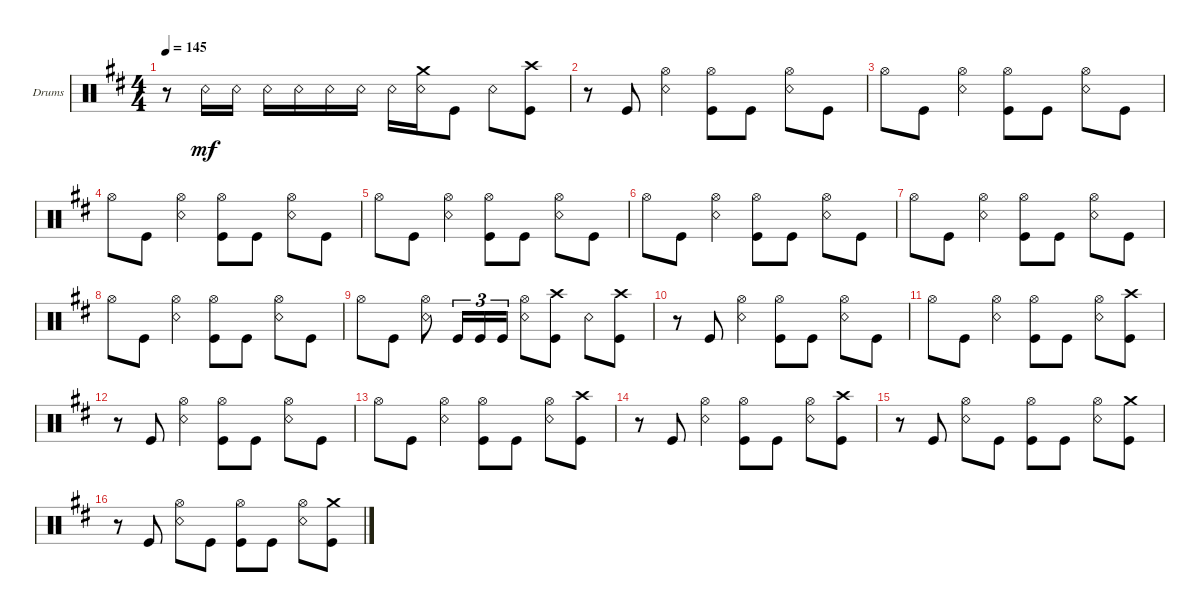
\defaultSystemsLayout 4
\bracketExtendMode groupsimilarinstruments
\firstSystemTrackNameOrientation horizontal
\otherSystemsTrackNameOrientation horizontal
\track ("Drumkit" "Drums") {instrument percussion}
\staff {score}
\articulation defaults
\ts (4 4)
\tempo 145
\clef neutral
\ks bminor
r.8{dy mf} "Snare (rim shot)".16 "Snare (rim shot)".16 "Snare (rim shot)".16 "Snare (rim shot)".16 "Snare (rim shot)".16 "Snare (rim shot)".16 "Snare (rim shot)".16 ("Snare (rim shot)" "Crash medium (hit)").16 "Kick (hit)".8 "Snare (rim shot)".8 ("Kick (hit)" "Crash high (hit)").8 |
r.8 "Kick (hit)".8 ("Snare (rim shot)" "Hi-Hat (open)").4 ("Kick (hit)" "Hi-Hat (open)").8 "Kick (hit)".8 ("Snare (rim shot)" "Hi-Hat (open)").8 "Kick (hit)".8 |
"Hi-Hat (open)".8 "Kick (hit)".8 ("Snare (rim shot)" "Hi-Hat (open)").4 ("Kick (hit)" "Hi-Hat (open)").8 "Kick (hit)".8 ("Snare (rim shot)" "Hi-Hat (open)").8 "Kick (hit)".8 |
"Hi-Hat (open)".8 "Kick (hit)".8 ("Snare (rim shot)" "Hi-Hat (open)").4 ("Kick (hit)" "Hi-Hat (open)").8 "Kick (hit)".8 ("Snare (rim shot)" "Hi-Hat (open)").8 "Kick (hit)".8 |
"Hi-Hat (open)".8 "Kick (hit)".8 ("Snare (rim shot)" "Hi-Hat (open)").4 ("Kick (hit)" "Hi-Hat (open)").8 "Kick (hit)".8 ("Snare (rim shot)" "Hi-Hat (open)").8 "Kick (hit)".8 |
"Hi-Hat (open)".8 "Kick (hit)".8 ("Snare (rim shot)" "Hi-Hat (open)").4 ("Kick (hit)" "Hi-Hat (open)").8 "Kick (hit)".8 ("Snare (rim shot)" "Hi-Hat (open)").8 "Kick (hit)".8 |
"Hi-Hat (open)".8 "Kick (hit)".8 ("Snare (rim shot)" "Hi-Hat (open)").4 ("Kick (hit)" "Hi-Hat (open)").8 "Kick (hit)".8 ("Snare (rim shot)" "Hi-Hat (open)").8 "Kick (hit)".8 |
"Hi-Hat (open)".8 "Kick (hit)".8 ("Snare (rim shot)" "Hi-Hat (open)").4 ("Kick (hit)" "Hi-Hat (open)").8 "Kick (hit)".8 ("Snare (rim shot)" "Hi-Hat (open)").8 "Kick (hit)".8 |
"Hi-Hat (open)".8 "Kick (hit)".8 ("Snare (rim shot)" "Hi-Hat (open)").8 "Kick (hit)".16{tu (3 2)} "Kick (hit)".16{tu (3 2)} "Kick (hit)".16{tu (3 2)} ("Snare (rim shot)" "Hi-Hat (open)").8 ("Kick (hit)" "Crash high (hit)").8 "Snare (rim shot)".8 ("Kick (hit)" "Crash high (hit)").8 |
r.8 "Kick (hit)".8 ("Snare (rim shot)" "Hi-Hat (open)").4 ("Kick (hit)" "Hi-Hat (open)").8 "Kick (hit)".8 ("Snare (rim shot)" "Hi-Hat (open)").8 "Kick (hit)".8 |
"Hi-Hat (open)".8 "Kick (hit)".8 ("Snare (rim shot)" "Hi-Hat (open)").4 ("Kick (hit)" "Hi-Hat (open)").8 "Kick (hit)".8 ("Snare (rim shot)" "Hi-Hat (open)").8 ("Kick (hit)" "Crash high (hit)").8 |
r.8 "Kick (hit)".8 ("Snare (rim shot)" "Hi-Hat (open)").4 ("Kick (hit)" "Hi-Hat (open)").8 "Kick (hit)".8 ("Snare (rim shot)" "Hi-Hat (open)").8 "Kick (hit)".8 |
"Hi-Hat (open)".8 "Kick (hit)".8 ("Snare (rim shot)" "Hi-Hat (open)").4 ("Kick (hit)" "Hi-Hat (open)").8 "Kick (hit)".8 ("Snare (rim shot)" "Hi-Hat (open)").8 ("Kick (hit)" "Crash high (hit)").8 |
r.8 "Kick (hit)".8 ("Snare (rim shot)" "Hi-Hat (open)").4 ("Kick (hit)" "Hi-Hat (open)").8 "Kick (hit)".8 ("Snare (rim shot)" "Hi-Hat (open)").8 ("Kick (hit)" "Crash high (hit)").8 |
r.8 "Kick (hit)".8 ("Snare (rim shot)" "Hi-Hat (open)").8 "Kick (hit)".8 ("Kick (hit)" "Hi-Hat (open)").8 "Kick (hit)".8 ("Snare (rim shot)" "Hi-Hat (open)").8 ("Kick (hit)" "Crash medium (hit)").8 |
r.8 "Kick (hit)".8 ("Snare (rim shot)" "Hi-Hat (open)").8 "Kick (hit)".8 ("Kick (hit)" "Hi-Hat (open)").8 "Kick (hit)".8 ("Snare (rim shot)" "Hi-Hat (open)").8 ("Kick (hit)" "Crash medium (hit)").8
